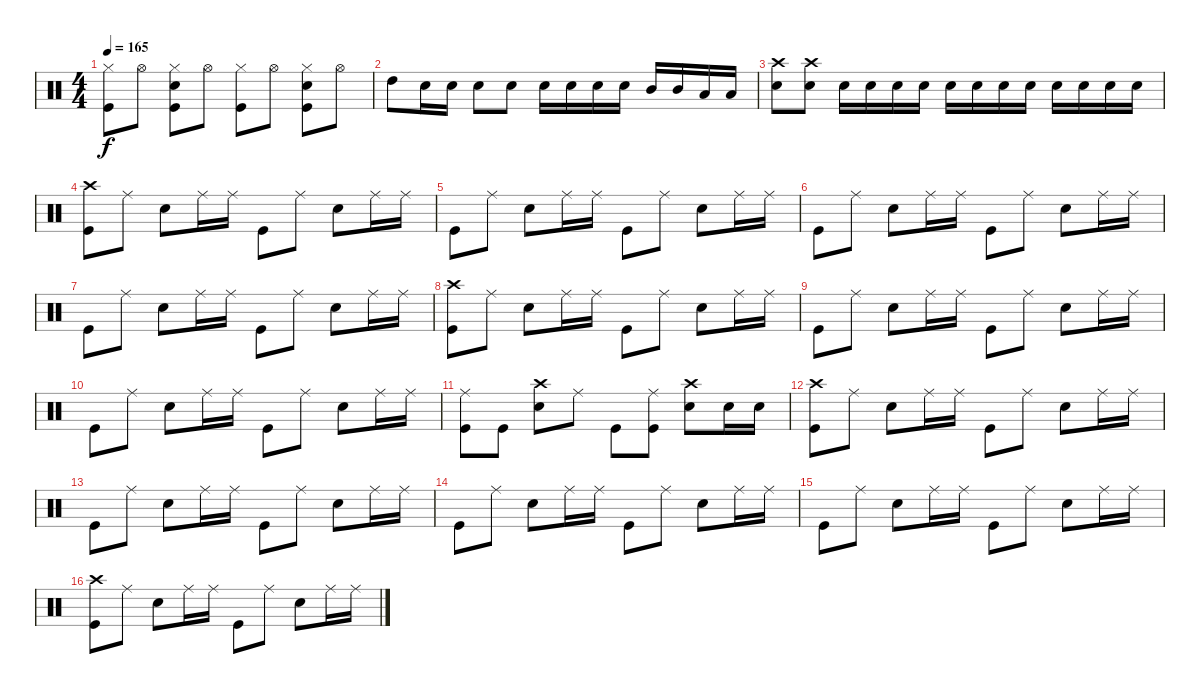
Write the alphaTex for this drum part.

\track "" {instrument percussion}
\staff {score}
\articulation defaults
\ts (4 4)
\tempo 165
\clef neutral
\ks c
("Hi-Hat (closed)" "Kick (hit)").8{dy f} "Hi-Hat (open)".8 ("Hi-Hat (closed)" "Electric Snare (hit)" "Kick (hit)").8 "Hi-Hat (open)".8 ("Hi-Hat (closed)" "Kick (hit)").8 "Hi-Hat (open)".8 ("Hi-Hat (closed)" "Electric Snare (hit)" "Kick (hit)").8 "Hi-Hat (open)".8 |
"High Tom (hit)".8 "Electric Snare (hit)".16 "Electric Snare (hit)".16 "Electric Snare (hit)".8 "Electric Snare (hit)".8 "Electric Snare (hit)".16 "Electric Snare (hit)".16 "Electric Snare (hit)".16 "Electric Snare (hit)".16 "Mid Tom (hit)".16 "Mid Tom (hit)".16 "Low Tom (hit)".16 "Low Tom (hit)".16 |
("Crash high (hit)" "Electric Snare (hit)").8 ("Crash high (hit)" "Electric Snare (hit)").8 "Electric Snare (hit)".16 "Electric Snare (hit)".16 "Electric Snare (hit)".16 "Electric Snare (hit)".16 "Electric Snare (hit)".16 "Electric Snare (hit)".16 "Electric Snare (hit)".16 "Electric Snare (hit)".16 "Electric Snare (hit)".16 "Electric Snare (hit)".16 "Electric Snare (hit)".16 "Electric Snare (hit)".16 |
("Crash high (hit)" "Kick (hit)").8 "Ride (middle)".8 "Electric Snare (hit)".8 "Ride (middle)".16 "Ride (middle)".16 "Kick (hit)".8 "Ride (middle)".8 "Electric Snare (hit)".8 "Ride (middle)".16 "Ride (middle)".16 |
"Kick (hit)".8 "Ride (middle)".8 "Electric Snare (hit)".8 "Ride (middle)".16 "Ride (middle)".16 "Kick (hit)".8 "Ride (middle)".8 "Electric Snare (hit)".8 "Ride (middle)".16 "Ride (middle)".16 |
"Kick (hit)".8 "Ride (middle)".8 "Electric Snare (hit)".8 "Ride (middle)".16 "Ride (middle)".16 "Kick (hit)".8 "Ride (middle)".8 "Electric Snare (hit)".8 "Ride (middle)".16 "Ride (middle)".16 |
"Kick (hit)".8 "Ride (middle)".8 "Electric Snare (hit)".8 "Ride (middle)".16 "Ride (middle)".16 "Kick (hit)".8 "Ride (middle)".8 "Electric Snare (hit)".8 "Ride (middle)".16 "Ride (middle)".16 |
("Crash high (hit)" "Kick (hit)").8 "Ride (middle)".8 "Electric Snare (hit)".8 "Ride (middle)".16 "Ride (middle)".16 "Kick (hit)".8 "Ride (middle)".8 "Electric Snare (hit)".8 "Ride (middle)".16 "Ride (middle)".16 |
"Kick (hit)".8 "Ride (middle)".8 "Electric Snare (hit)".8 "Ride (middle)".16 "Ride (middle)".16 "Kick (hit)".8 "Ride (middle)".8 "Electric Snare (hit)".8 "Ride (middle)".16 "Ride (middle)".16 |
"Kick (hit)".8 "Ride (middle)".8 "Electric Snare (hit)".8 "Ride (middle)".16 "Ride (middle)".16 "Kick (hit)".8 "Ride (middle)".8 "Electric Snare (hit)".8 "Ride (middle)".16 "Ride (middle)".16 |
("Ride (middle)" "Kick (hit)").8 "Kick (hit)".8 ("Crash high (hit)" "Electric Snare (hit)").8 "Ride (middle)".8 "Kick (hit)".8 ("Ride (middle)" "Kick (hit)").8 ("Crash high (hit)" "Electric Snare (hit)").8 "Electric Snare (hit)".16 "Electric Snare (hit)".16 |
("Crash high (hit)" "Kick (hit)").8 "Ride (middle)".8 "Electric Snare (hit)".8 "Ride (middle)".16 "Ride (middle)".16 "Kick (hit)".8 "Ride (middle)".8 "Electric Snare (hit)".8 "Ride (middle)".16 "Ride (middle)".16 |
"Kick (hit)".8 "Ride (middle)".8 "Electric Snare (hit)".8 "Ride (middle)".16 "Ride (middle)".16 "Kick (hit)".8 "Ride (middle)".8 "Electric Snare (hit)".8 "Ride (middle)".16 "Ride (middle)".16 |
"Kick (hit)".8 "Ride (middle)".8 "Electric Snare (hit)".8 "Ride (middle)".16 "Ride (middle)".16 "Kick (hit)".8 "Ride (middle)".8 "Electric Snare (hit)".8 "Ride (middle)".16 "Ride (middle)".16 |
"Kick (hit)".8 "Ride (middle)".8 "Electric Snare (hit)".8 "Ride (middle)".16 "Ride (middle)".16 "Kick (hit)".8 "Ride (middle)".8 "Electric Snare (hit)".8 "Ride (middle)".16 "Ride (middle)".16 |
("Crash high (hit)" "Kick (hit)").8 "Ride (middle)".8 "Electric Snare (hit)".8 "Ride (middle)".16 "Ride (middle)".16 "Kick (hit)".8 "Ride (middle)".8 "Electric Snare (hit)".8 "Ride (middle)".16 "Ride (middle)".16
